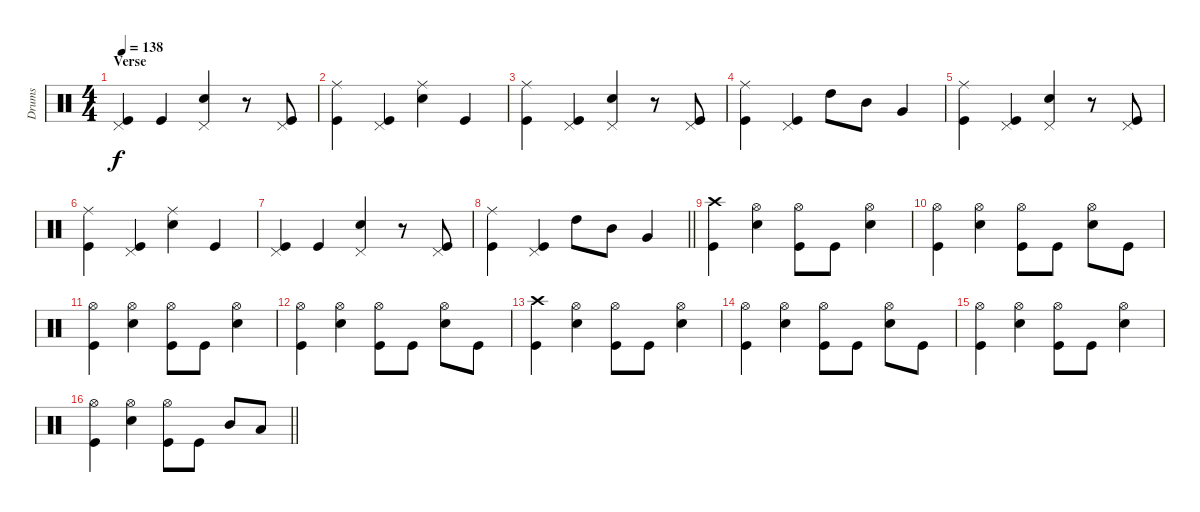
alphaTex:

\track ("Drums" "Drums") {instrument percussion}
\staff {score}
\articulation defaults
\ts (4 4)
\section ("" "Verse ")
\tempo 138
\clef neutral
\ks c
("Pedal Hi-Hat (hit)" "Kick (hit)").4{dy f} "Kick (hit)".4 ("Pedal Hi-Hat (hit)" "Electric Snare (hit)").4 r.8 ("Pedal Hi-Hat (hit)" "Kick (hit)").8 |
("Ride (middle)" "Kick (hit)").4 ("Pedal Hi-Hat (hit)" "Kick (hit)").4 ("Ride (middle)" "Electric Snare (hit)").4 "Kick (hit)".4 |
("Ride (middle)" "Kick (hit)").4 ("Pedal Hi-Hat (hit)" "Kick (hit)").4 ("Pedal Hi-Hat (hit)" "Electric Snare (hit)").4 r.8 ("Pedal Hi-Hat (hit)" "Kick (hit)").8 |
("Ride (middle)" "Kick (hit)").4 ("Pedal Hi-Hat (hit)" "Kick (hit)").4 "High Tom (hit)".8 "Mid Tom (hit)".8 "Very Low Tom (hit)".4 |
("Ride (middle)" "Kick (hit)").4 ("Pedal Hi-Hat (hit)" "Kick (hit)").4 ("Pedal Hi-Hat (hit)" "Electric Snare (hit)").4 r.8 ("Pedal Hi-Hat (hit)" "Kick (hit)").8 |
("Ride (middle)" "Kick (hit)").4 ("Pedal Hi-Hat (hit)" "Kick (hit)").4 ("Ride (middle)" "Electric Snare (hit)").4 "Kick (hit)".4 |
("Pedal Hi-Hat (hit)" "Kick (hit)").4 "Kick (hit)".4 ("Pedal Hi-Hat (hit)" "Electric Snare (hit)").4 r.8 ("Pedal Hi-Hat (hit)" "Kick (hit)").8 |
\barLineRight lightlight
("Ride (middle)" "Kick (hit)").4 ("Pedal Hi-Hat (hit)" "Kick (hit)").4 "High Tom (hit)".8 "Mid Tom (hit)".8 "Very Low Tom (hit)".4 |
\section ("" "")
("Crash high (hit)" "Kick (hit)").4 ("Hi-Hat (open)" "Electric Snare (hit)").4 ("Hi-Hat (open)" "Kick (hit)").8 "Kick (hit)".8 ("Hi-Hat (open)" "Electric Snare (hit)").4 |
("Hi-Hat (open)" "Kick (hit)").4 ("Hi-Hat (open)" "Electric Snare (hit)").4 ("Hi-Hat (open)" "Kick (hit)").8 "Kick (hit)".8 ("Hi-Hat (open)" "Electric Snare (hit)").8 "Kick (hit)".8 |
("Hi-Hat (open)" "Kick (hit)").4 ("Hi-Hat (open)" "Electric Snare (hit)").4 ("Hi-Hat (open)" "Kick (hit)").8 "Kick (hit)".8 ("Hi-Hat (open)" "Electric Snare (hit)").4 |
("Hi-Hat (open)" "Kick (hit)").4 ("Hi-Hat (open)" "Electric Snare (hit)").4 ("Hi-Hat (open)" "Kick (hit)").8 "Kick (hit)".8 ("Hi-Hat (open)" "Electric Snare (hit)").8 "Kick (hit)".8 |
("Crash high (hit)" "Kick (hit)").4 ("Hi-Hat (open)" "Electric Snare (hit)").4 ("Hi-Hat (open)" "Kick (hit)").8 "Kick (hit)".8 ("Hi-Hat (open)" "Electric Snare (hit)").4 |
("Hi-Hat (open)" "Kick (hit)").4 ("Hi-Hat (open)" "Electric Snare (hit)").4 ("Hi-Hat (open)" "Kick (hit)").8 "Kick (hit)".8 ("Hi-Hat (open)" "Electric Snare (hit)").8 "Kick (hit)".8 |
("Hi-Hat (open)" "Kick (hit)").4 ("Hi-Hat (open)" "Electric Snare (hit)").4 ("Hi-Hat (open)" "Kick (hit)").8 "Kick (hit)".8 ("Hi-Hat (open)" "Electric Snare (hit)").4 |
\barLineRight lightlight
("Hi-Hat (open)" "Kick (hit)").4 ("Hi-Hat (open)" "Electric Snare (hit)").4 ("Hi-Hat (open)" "Kick (hit)").8 "Kick (hit)".8 "Mid Tom (hit)".8 "Low Tom (hit)".8
